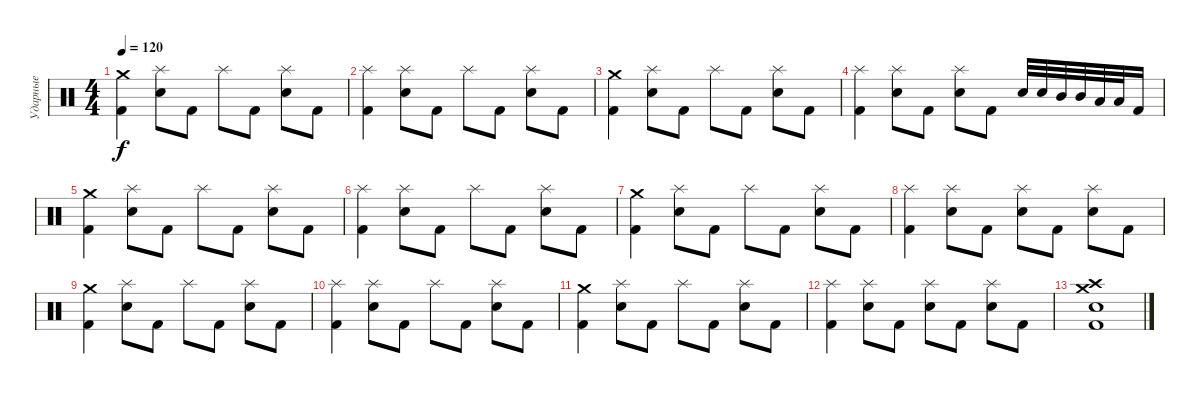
\track ("Ударные" "Ударные") {instrument percussion}
\staff {score}
\articulation defaults
\ts (4 4)
\tempo 120
\clef neutral
\ks c
("Crash medium (hit)" "Kick (hit) 2").4{dy f} ("Splash (hit)" "Electric Snare (hit)").8 "Kick (hit) 2".8 "Splash (hit)".8 "Kick (hit) 2".8 ("Splash (hit)" "Electric Snare (hit)").8 "Kick (hit) 2".8 |
("Splash (hit)" "Kick (hit) 2").4 ("Splash (hit)" "Electric Snare (hit)").8 "Kick (hit) 2".8 "Splash (hit)".8 "Kick (hit) 2".8 ("Splash (hit)" "Electric Snare (hit)").8 "Kick (hit) 2".8 |
("Crash medium (hit)" "Kick (hit) 2").4 ("Splash (hit)" "Electric Snare (hit)").8 "Kick (hit) 2".8 "Splash (hit)".8 "Kick (hit) 2".8 ("Splash (hit)" "Electric Snare (hit)").8 "Kick (hit) 2".8 |
("Splash (hit)" "Kick (hit) 2").4 ("Splash (hit)" "Electric Snare (hit)").8 "Kick (hit) 2".8 ("Splash (hit)" "Electric Snare (hit)").8 "Kick (hit) 2".8 "Electric Snare (hit)".32 "Electric Snare (hit)".32 "Mid Tom (hit)".32 "Mid Tom (hit)".32 "Low Tom (hit)".32 "Low Tom (hit)".32 "Kick (hit) 2".16 |
("Crash medium (hit)" "Kick (hit) 2").4 ("Splash (hit)" "Electric Snare (hit)").8 "Kick (hit) 2".8 "Splash (hit)".8 "Kick (hit) 2".8 ("Splash (hit)" "Electric Snare (hit)").8 "Kick (hit) 2".8 |
("Splash (hit)" "Kick (hit) 2").4 ("Splash (hit)" "Electric Snare (hit)").8 "Kick (hit) 2".8 "Splash (hit)".8 "Kick (hit) 2".8 ("Splash (hit)" "Electric Snare (hit)").8 "Kick (hit) 2".8 |
("Crash medium (hit)" "Kick (hit) 2").4 ("Splash (hit)" "Electric Snare (hit)").8 "Kick (hit) 2".8 "Splash (hit)".8 "Kick (hit) 2".8 ("Splash (hit)" "Electric Snare (hit)").8 "Kick (hit) 2".8 |
("Splash (hit)" "Kick (hit) 2").4 ("Splash (hit)" "Electric Snare (hit)").8 "Kick (hit) 2".8 ("Splash (hit)" "Electric Snare (hit)").8 "Kick (hit) 2".8 ("Splash (hit)" "Electric Snare (hit)").8 "Kick (hit) 2".8 |
("Crash medium (hit)" "Kick (hit) 2").4 ("Splash (hit)" "Electric Snare (hit)").8 "Kick (hit) 2".8 "Splash (hit)".8 "Kick (hit) 2".8 ("Splash (hit)" "Electric Snare (hit)").8 "Kick (hit) 2".8 |
("Splash (hit)" "Kick (hit) 2").4 ("Splash (hit)" "Electric Snare (hit)").8 "Kick (hit) 2".8 "Splash (hit)".8 "Kick (hit) 2".8 ("Splash (hit)" "Electric Snare (hit)").8 "Kick (hit) 2".8 |
("Crash medium (hit)" "Kick (hit) 2").4 ("Splash (hit)" "Electric Snare (hit)").8 "Kick (hit) 2".8 "Splash (hit)".8 "Kick (hit) 2".8 ("Splash (hit)" "Electric Snare (hit)").8 "Kick (hit) 2".8 |
("Splash (hit)" "Kick (hit) 2").4 ("Splash (hit)" "Electric Snare (hit)").8 "Kick (hit) 2".8 ("Splash (hit)" "Electric Snare (hit)").8 "Kick (hit) 2".8 ("Splash (hit)" "Electric Snare (hit)").8 "Kick (hit) 2".8 |
("Crash high (hit)" "Crash medium (hit)" "Electric Snare (hit)" "Kick (hit) 2").1
